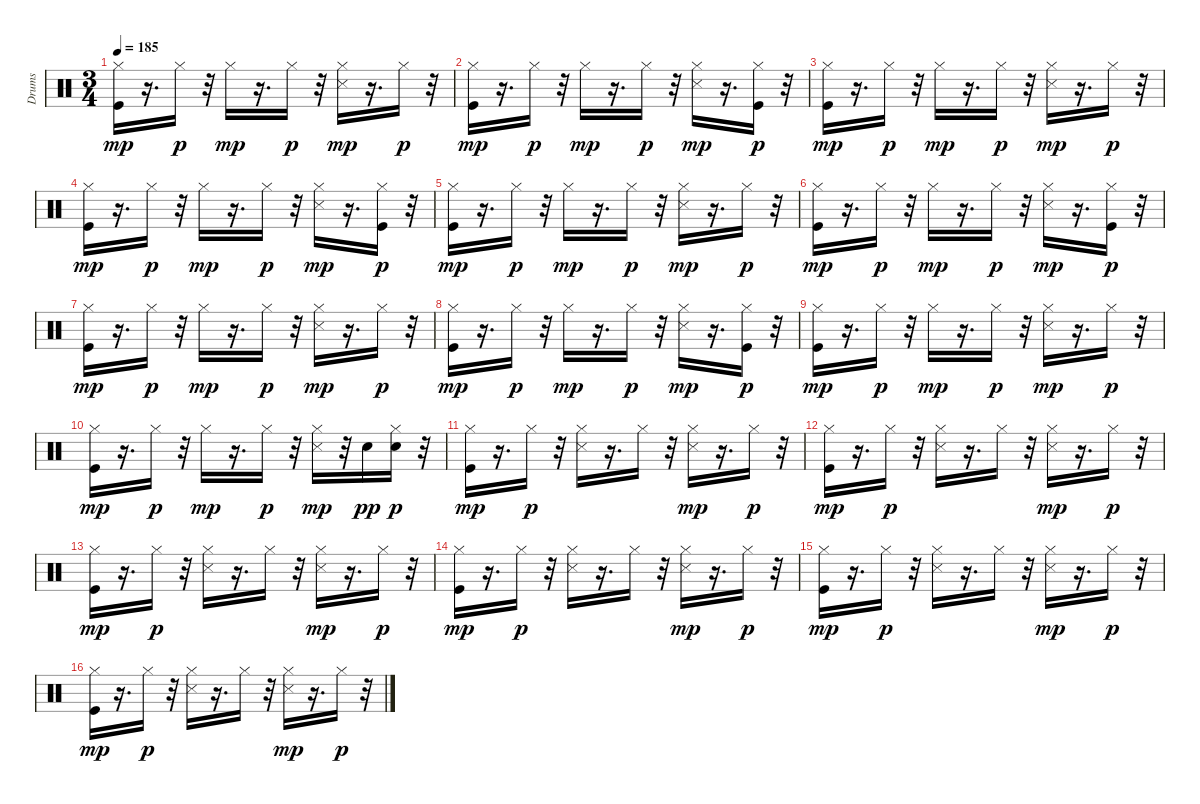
\track ("Drums " "Drums ") {instrument percussion}
\staff {score}
\articulation defaults
\ts (3 4)
\tempo 185
\clef neutral
\ks c
("Kick (hit)" "Hi-Hat (closed)").16{dy mp} r.16{d} "Hi-Hat (closed)".16{dy p} r.32 "Hi-Hat (closed)".16{dy mp} r.16{d} "Hi-Hat (closed)".16{dy p} r.32 ("Hi-Hat (closed)" "Snare (side stick) 3").16{dy mp} r.16{d} "Hi-Hat (closed)".16{dy p} r.32 |
("Kick (hit)" "Hi-Hat (closed)").16{dy mp} r.16{d} "Hi-Hat (closed)".16{dy p} r.32 "Hi-Hat (closed)".16{dy mp} r.16{d} "Hi-Hat (closed)".16{dy p} r.32 ("Hi-Hat (closed)" "Snare (side stick) 3").16{dy mp} r.16{d} ("Kick (hit)" "Hi-Hat (closed)").16{dy p} r.32 |
("Kick (hit)" "Hi-Hat (closed)").16{dy mp} r.16{d} "Hi-Hat (closed)".16{dy p} r.32 "Hi-Hat (closed)".16{dy mp} r.16{d} "Hi-Hat (closed)".16{dy p} r.32 ("Hi-Hat (closed)" "Snare (side stick) 3").16{dy mp} r.16{d} "Hi-Hat (closed)".16{dy p} r.32 |
("Kick (hit)" "Hi-Hat (closed)").16{dy mp} r.16{d} "Hi-Hat (closed)".16{dy p} r.32 "Hi-Hat (closed)".16{dy mp} r.16{d} "Hi-Hat (closed)".16{dy p} r.32 ("Hi-Hat (closed)" "Snare (side stick) 3").16{dy mp} r.16{d} ("Kick (hit)" "Hi-Hat (closed)").16{dy p} r.32 |
("Kick (hit)" "Hi-Hat (closed)").16{dy mp} r.16{d} "Hi-Hat (closed)".16{dy p} r.32 "Hi-Hat (closed)".16{dy mp} r.16{d} "Hi-Hat (closed)".16{dy p} r.32 ("Hi-Hat (closed)" "Snare (side stick) 3").16{dy mp} r.16{d} "Hi-Hat (closed)".16{dy p} r.32 |
("Kick (hit)" "Hi-Hat (closed)").16{dy mp} r.16{d} "Hi-Hat (closed)".16{dy p} r.32 "Hi-Hat (closed)".16{dy mp} r.16{d} "Hi-Hat (closed)".16{dy p} r.32 ("Hi-Hat (closed)" "Snare (side stick) 3").16{dy mp} r.16{d} ("Kick (hit)" "Hi-Hat (closed)").16{dy p} r.32 |
("Kick (hit)" "Hi-Hat (closed)").16{dy mp} r.16{d} "Hi-Hat (closed)".16{dy p} r.32 "Hi-Hat (closed)".16{dy mp} r.16{d} "Hi-Hat (closed)".16{dy p} r.32 ("Hi-Hat (closed)" "Snare (side stick) 3").16{dy mp} r.16{d} "Hi-Hat (closed)".16{dy p} r.32 |
("Kick (hit)" "Hi-Hat (closed)").16{dy mp} r.16{d} "Hi-Hat (closed)".16{dy p} r.32 "Hi-Hat (closed)".16{dy mp} r.16{d} "Hi-Hat (closed)".16{dy p} r.32 ("Hi-Hat (closed)" "Snare (side stick) 3").16{dy mp} r.16{d} ("Kick (hit)" "Hi-Hat (closed)").16{dy p} r.32 |
("Kick (hit)" "Hi-Hat (closed)").16{dy mp} r.16{d} "Hi-Hat (closed)".16{dy p} r.32 "Hi-Hat (closed)".16{dy mp} r.16{d} "Hi-Hat (closed)".16{dy p} r.32 ("Hi-Hat (closed)" "Snare (side stick) 3").16{dy mp} r.16{d} "Hi-Hat (closed)".16{dy p} r.32 |
("Kick (hit)" "Hi-Hat (closed)").16{dy mp} r.16{d} "Hi-Hat (closed)".16{dy p} r.32 "Hi-Hat (closed)".16{dy mp} r.16{d} "Hi-Hat (closed)".16{dy p} r.32 ("Hi-Hat (closed)" "Snare (side stick) 3").16{dy mp} r.32 "Snare (hit) 2".16{dy pp} ("Snare (hit) 2" "Hi-Hat (closed)").16{dy p} r.32 |
("Kick (hit)" "Hi-Hat (closed)").16{dy mp} r.16{d} "Hi-Hat (closed)".16{dy p} r.32 ("Hi-Hat (closed)" "Snare (side stick) 3").16 r.16{d} "Hi-Hat (closed)".16 r.32 ("Hi-Hat (closed)" "Snare (side stick) 3").16{dy mp} r.16{d} "Hi-Hat (closed)".16{dy p} r.32 |
("Kick (hit)" "Hi-Hat (closed)").16{dy mp} r.16{d} "Hi-Hat (closed)".16{dy p} r.32 ("Hi-Hat (closed)" "Snare (side stick) 3").16 r.16{d} "Hi-Hat (closed)".16 r.32 ("Hi-Hat (closed)" "Snare (side stick) 3").16{dy mp} r.16{d} "Hi-Hat (closed)".16{dy p} r.32 |
("Kick (hit)" "Hi-Hat (closed)").16{dy mp} r.16{d} "Hi-Hat (closed)".16{dy p} r.32 ("Hi-Hat (closed)" "Snare (side stick) 3").16 r.16{d} "Hi-Hat (closed)".16 r.32 ("Hi-Hat (closed)" "Snare (side stick) 3").16{dy mp} r.16{d} "Hi-Hat (closed)".16{dy p} r.32 |
("Kick (hit)" "Hi-Hat (closed)").16{dy mp} r.16{d} "Hi-Hat (closed)".16{dy p} r.32 ("Hi-Hat (closed)" "Snare (side stick) 3").16 r.16{d} "Hi-Hat (closed)".16 r.32 ("Hi-Hat (closed)" "Snare (side stick) 3").16{dy mp} r.16{d} "Hi-Hat (closed)".16{dy p} r.32 |
("Kick (hit)" "Hi-Hat (closed)").16{dy mp} r.16{d} "Hi-Hat (closed)".16{dy p} r.32 ("Hi-Hat (closed)" "Snare (side stick) 3").16 r.16{d} "Hi-Hat (closed)".16 r.32 ("Hi-Hat (closed)" "Snare (side stick) 3").16{dy mp} r.16{d} "Hi-Hat (closed)".16{dy p} r.32 |
("Kick (hit)" "Hi-Hat (closed)").16{dy mp} r.16{d} "Hi-Hat (closed)".16{dy p} r.32 ("Hi-Hat (closed)" "Snare (side stick) 3").16 r.16{d} "Hi-Hat (closed)".16 r.32 ("Hi-Hat (closed)" "Snare (side stick) 3").16{dy mp} r.16{d} "Hi-Hat (closed)".16{dy p} r.32
